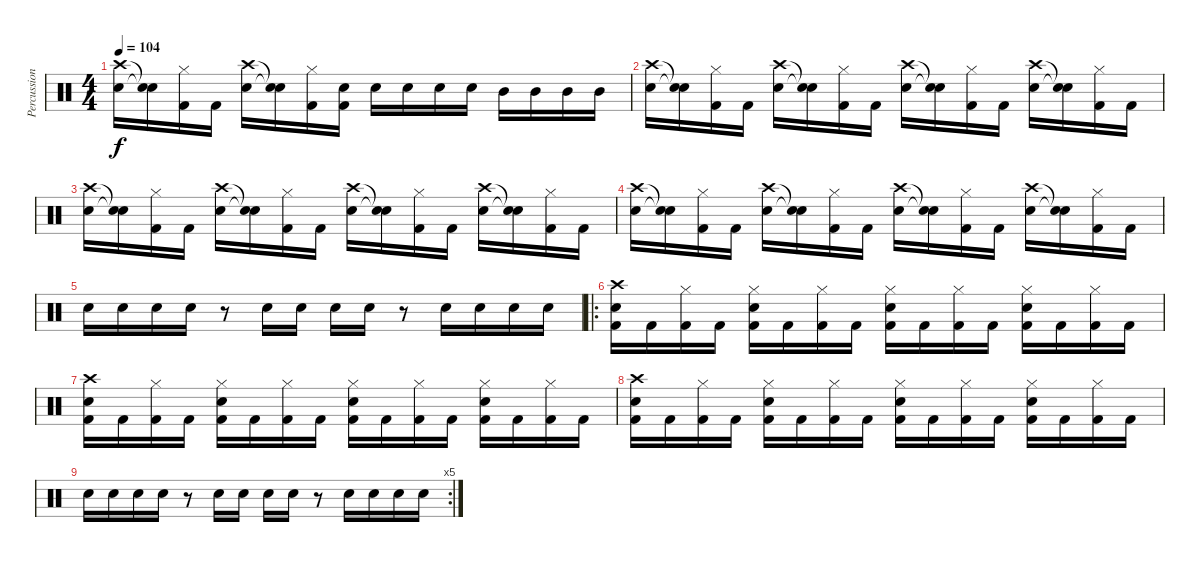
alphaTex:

\track ("Percussion" "Percussion") {instrument percussion}
\staff {score}
\articulation defaults
\ts (4 4)
\tempo 104
\clef neutral
\ks c
("Crash high (hit)" "Snare (hit) 2").16{dy f} ("Snare (hit)"{t} "Snare (hit)"{t}).16 ("Hi-Hat (closed)" "Kick (hit) 2").16 "Kick (hit) 2".16 ("Crash high (hit)" "Snare (hit) 2").16 ("Snare (hit)"{t} "Snare (hit)"{t}).16 ("Hi-Hat (closed)" "Kick (hit) 2").16 ("Snare (hit) 2" "Kick (hit) 2").16 "Snare (hit) 2".16 "Snare (hit) 2".16 "Snare (hit) 2".16 "Snare (hit) 2".16 "Mid Tom (hit)".16 "Mid Tom (hit)".16 "Mid Tom (hit)".16 "Mid Tom (hit)".16 |
("Crash high (hit)" "Snare (hit) 2").16 ("Snare (hit)"{t} "Snare (hit)"{t}).16 ("Hi-Hat (closed)" "Kick (hit) 2").16 "Kick (hit) 2".16 ("Crash high (hit)" "Snare (hit) 2").16 ("Snare (hit)"{t} "Snare (hit)"{t}).16 ("Hi-Hat (closed)" "Kick (hit) 2").16 "Kick (hit) 2".16 ("Crash high (hit)" "Snare (hit) 2").16 ("Snare (hit)"{t} "Snare (hit)"{t}).16 ("Hi-Hat (closed)" "Kick (hit) 2").16 "Kick (hit) 2".16 ("Crash high (hit)" "Snare (hit) 2").16 ("Snare (hit)"{t} "Snare (hit)"{t}).16 ("Hi-Hat (closed)" "Kick (hit) 2").16 "Kick (hit) 2".16 |
("Crash high (hit)" "Snare (hit) 2").16 ("Snare (hit)"{t} "Snare (hit)"{t}).16 ("Hi-Hat (closed)" "Kick (hit) 2").16 "Kick (hit) 2".16 ("Crash high (hit)" "Snare (hit) 2").16 ("Snare (hit)"{t} "Snare (hit)"{t}).16 ("Hi-Hat (closed)" "Kick (hit) 2").16 "Kick (hit) 2".16 ("Crash high (hit)" "Snare (hit) 2").16 ("Snare (hit)"{t} "Snare (hit)"{t}).16 ("Hi-Hat (closed)" "Kick (hit) 2").16 "Kick (hit) 2".16 ("Crash high (hit)" "Snare (hit) 2").16 ("Snare (hit)"{t} "Snare (hit)"{t}).16 ("Hi-Hat (closed)" "Kick (hit) 2").16 "Kick (hit) 2".16 |
("Crash high (hit)" "Snare (hit) 2").16 ("Snare (hit)"{t} "Snare (hit)"{t}).16 ("Hi-Hat (closed)" "Kick (hit) 2").16 "Kick (hit) 2".16 ("Crash high (hit)" "Snare (hit) 2").16 ("Snare (hit)"{t} "Snare (hit)"{t}).16 ("Hi-Hat (closed)" "Kick (hit) 2").16 "Kick (hit) 2".16 ("Crash high (hit)" "Snare (hit) 2").16 ("Snare (hit)"{t} "Snare (hit)"{t}).16 ("Hi-Hat (closed)" "Kick (hit) 2").16 "Kick (hit) 2".16 ("Crash high (hit)" "Snare (hit) 2").16 ("Snare (hit)"{t} "Snare (hit)"{t}).16 ("Hi-Hat (closed)" "Kick (hit) 2").16 "Kick (hit) 2".16 |
"Snare (hit) 2".16 "Snare (hit) 2".16 "Snare (hit) 2".16 "Snare (hit) 2".16 r.8 "Snare (hit) 2".16 "Snare (hit) 2".16 "Snare (hit) 2".16 "Snare (hit) 2".16 r.8 "Snare (hit) 2".16 "Snare (hit) 2".16 "Snare (hit) 2".16 "Snare (hit) 2".16 |
\ro
("Crash high (hit)" "Snare (hit) 2" "Kick (hit) 2").16 "Kick (hit) 2".16 ("Hi-Hat (closed)" "Kick (hit) 2").16 "Kick (hit) 2".16 ("Hi-Hat (closed)" "Snare (hit) 2" "Kick (hit) 2").16 "Kick (hit) 2".16 ("Hi-Hat (closed)" "Kick (hit) 2").16 "Kick (hit) 2".16 ("Hi-Hat (closed)" "Snare (hit) 2" "Kick (hit) 2").16 "Kick (hit) 2".16 ("Hi-Hat (closed)" "Kick (hit) 2").16 "Kick (hit) 2".16 ("Hi-Hat (closed)" "Snare (hit) 2" "Kick (hit) 2").16 "Kick (hit) 2".16 ("Hi-Hat (closed)" "Kick (hit) 2").16 "Kick (hit) 2".16 |
("Crash high (hit)" "Snare (hit) 2" "Kick (hit) 2").16 "Kick (hit) 2".16 ("Hi-Hat (closed)" "Kick (hit) 2").16 "Kick (hit) 2".16 ("Hi-Hat (closed)" "Snare (hit) 2" "Kick (hit) 2").16 "Kick (hit) 2".16 ("Hi-Hat (closed)" "Kick (hit) 2").16 "Kick (hit) 2".16 ("Hi-Hat (closed)" "Snare (hit) 2" "Kick (hit) 2").16 "Kick (hit) 2".16 ("Hi-Hat (closed)" "Kick (hit) 2").16 "Kick (hit) 2".16 ("Hi-Hat (closed)" "Snare (hit) 2" "Kick (hit) 2").16 "Kick (hit) 2".16 ("Hi-Hat (closed)" "Kick (hit) 2").16 "Kick (hit) 2".16 |
("Crash high (hit)" "Snare (hit) 2" "Kick (hit) 2").16 "Kick (hit) 2".16 ("Hi-Hat (closed)" "Kick (hit) 2").16 "Kick (hit) 2".16 ("Hi-Hat (closed)" "Snare (hit) 2" "Kick (hit) 2").16 "Kick (hit) 2".16 ("Hi-Hat (closed)" "Kick (hit) 2").16 "Kick (hit) 2".16 ("Hi-Hat (closed)" "Snare (hit) 2" "Kick (hit) 2").16 "Kick (hit) 2".16 ("Hi-Hat (closed)" "Kick (hit) 2").16 "Kick (hit) 2".16 ("Hi-Hat (closed)" "Snare (hit) 2" "Kick (hit) 2").16 "Kick (hit) 2".16 ("Hi-Hat (closed)" "Kick (hit) 2").16 "Kick (hit) 2".16 |
\rc 5 "Snare (hit) 2".16 "Snare (hit) 2".16 "Snare (hit) 2".16 "Snare (hit) 2".16
r.8 "Snare (hit) 2".16 "Snare (hit) 2".16 "Snare (hit) 2".16 "Snare (hit) 2".16 r.8 "Snare (hit) 2".16 "Snare (hit) 2".16 "Snare (hit) 2".16 "Snare (hit) 2".16
